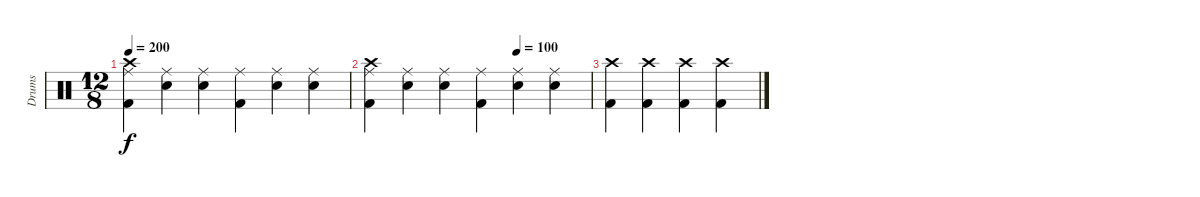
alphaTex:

\track ("Drums" "Drums") {instrument percussion}
\staff {score}
\articulation defaults
\ts (12 8)
\tempo 200
\clef neutral
\ks c
("Crash high (hit)" "Ride (middle)" "Kick (hit) 2").4{dy f} ("Ride (middle)" "Snare (hit) 2").4 ("Ride (middle)" "Snare (hit) 2").4 ("Ride (middle)" "Kick (hit) 2").4 ("Ride (middle)" "Snare (hit) 2").4 ("Ride (middle)" "Snare (hit) 2").4 |
\tempo (100 0.6666666666666666)
("Crash high (hit)" "Ride (middle)" "Kick (hit) 2").4 ("Ride (middle)" "Snare (hit) 2").4 ("Ride (middle)" "Snare (hit) 2").4 ("Ride (middle)" "Kick (hit) 2").4 ("Ride (middle)" "Snare (hit) 2").4 ("Ride (middle)" "Snare (hit) 2").4 |
("Crash high (hit)" "Kick (hit) 2").4 ("Crash high (hit)" "Kick (hit) 2").4 ("Crash high (hit)" "Kick (hit) 2").4 ("Crash high (hit)" "Kick (hit) 2").4
